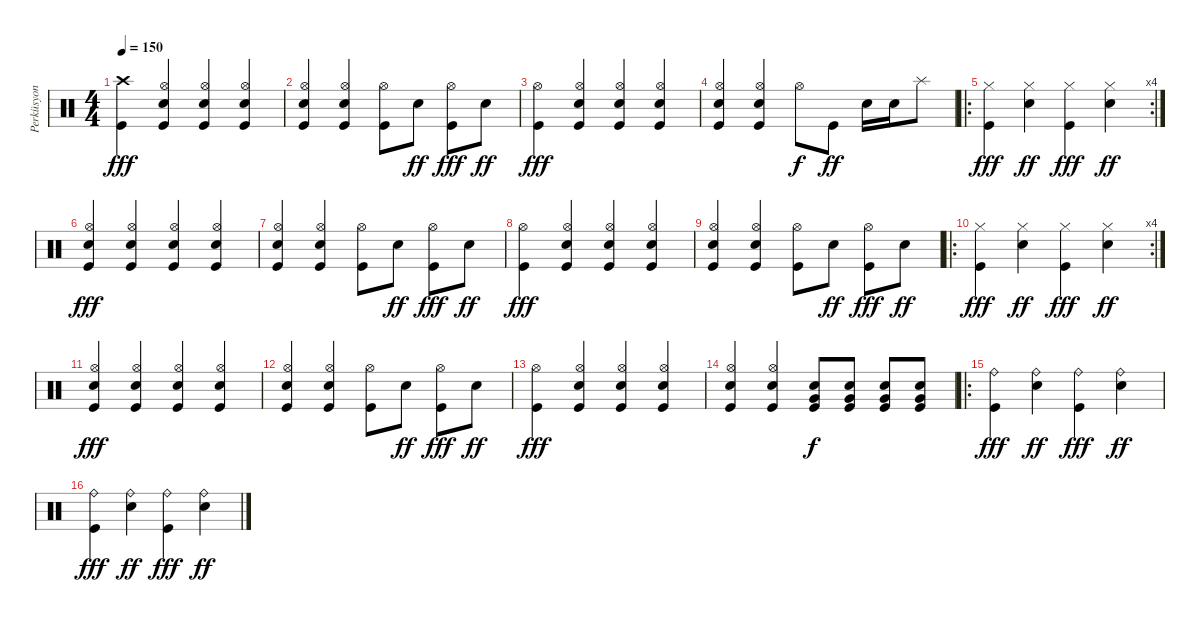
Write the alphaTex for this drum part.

\track ("Perküsyon" "Perküsyon") {instrument percussion}
\staff {score}
\articulation defaults
\ts (4 4)
\tempo 150
\clef neutral
\ks c
("Crash high (hit)" "Kick (hit)").4{dy fff} ("Hi-Hat (open)" "Snare (hit) 2" "Kick (hit)").4 ("Hi-Hat (open)" "Snare (hit) 2" "Kick (hit)").4 ("Hi-Hat (open)" "Snare (hit) 2" "Kick (hit)").4 |
("Hi-Hat (open)" "Snare (hit) 2" "Kick (hit)").4 ("Hi-Hat (open)" "Snare (hit) 2" "Kick (hit)").4 ("Hi-Hat (open)" "Kick (hit)").8 "Snare (hit) 2".8{dy ff} ("Hi-Hat (open)" "Kick (hit)").8{dy fff} "Snare (hit) 2".8{dy ff} |
("Hi-Hat (open)" "Kick (hit)").4{dy fff} ("Hi-Hat (open)" "Snare (hit) 2" "Kick (hit)").4 ("Hi-Hat (open)" "Snare (hit) 2" "Kick (hit)").4 ("Hi-Hat (open)" "Snare (hit) 2" "Kick (hit)").4 |
("Hi-Hat (open)" "Snare (hit) 2" "Kick (hit)").4 ("Hi-Hat (open)" "Snare (hit) 2" "Kick (hit)").4 "Hi-Hat (open)".8{dy f} "Kick (hit)".8{dy ff} "Snare (hit) 2".16 "Snare (hit) 2".16 "Splash (hit)".8 |
\ro
\rc 4
("Hi-Hat (closed)" "Kick (hit)").4{dy fff} ("Hi-Hat (closed)" "Snare (hit) 2").4{dy ff} ("Hi-Hat (closed)" "Kick (hit)").4{dy fff} ("Hi-Hat (closed)" "Snare (hit) 2").4{dy ff} |
("Hi-Hat (open)" "Snare (hit) 2" "Kick (hit)").4{dy fff} ("Hi-Hat (open)" "Snare (hit) 2" "Kick (hit)").4 ("Hi-Hat (open)" "Snare (hit) 2" "Kick (hit)").4 ("Hi-Hat (open)" "Snare (hit) 2" "Kick (hit)").4 |
("Hi-Hat (open)" "Snare (hit) 2" "Kick (hit)").4 ("Hi-Hat (open)" "Snare (hit) 2" "Kick (hit)").4 ("Hi-Hat (open)" "Kick (hit)").8 "Snare (hit) 2".8{dy ff} ("Hi-Hat (open)" "Kick (hit)").8{dy fff} "Snare (hit) 2".8{dy ff} |
("Hi-Hat (open)" "Kick (hit)").4{dy fff} ("Hi-Hat (open)" "Snare (hit) 2" "Kick (hit)").4 ("Hi-Hat (open)" "Snare (hit) 2" "Kick (hit)").4 ("Hi-Hat (open)" "Snare (hit) 2" "Kick (hit)").4 |
("Hi-Hat (open)" "Snare (hit) 2" "Kick (hit)").4 ("Hi-Hat (open)" "Snare (hit) 2" "Kick (hit)").4 ("Hi-Hat (open)" "Kick (hit)").8 "Snare (hit) 2".8{dy ff} ("Hi-Hat (open)" "Kick (hit)").8{dy fff} "Snare (hit) 2".8{dy ff} |
\ro
\rc 4
("Hi-Hat (closed)" "Kick (hit)").4{dy fff} ("Hi-Hat (closed)" "Snare (hit) 2").4{dy ff} ("Hi-Hat (closed)" "Kick (hit)").4{dy fff} ("Hi-Hat (closed)" "Snare (hit) 2").4{dy ff} |
("Hi-Hat (open)" "Snare (hit) 2" "Kick (hit)").4{dy fff} ("Hi-Hat (open)" "Snare (hit) 2" "Kick (hit)").4 ("Hi-Hat (open)" "Snare (hit) 2" "Kick (hit)").4 ("Hi-Hat (open)" "Snare (hit) 2" "Kick (hit)").4 |
("Hi-Hat (open)" "Snare (hit) 2" "Kick (hit)").4 ("Hi-Hat (open)" "Snare (hit) 2" "Kick (hit)").4 ("Hi-Hat (open)" "Kick (hit)").8 "Snare (hit) 2".8{dy ff} ("Hi-Hat (open)" "Kick (hit)").8{dy fff} "Snare (hit) 2".8{dy ff} |
("Hi-Hat (open)" "Kick (hit)").4{dy fff} ("Hi-Hat (open)" "Snare (hit) 2" "Kick (hit)").4 ("Hi-Hat (open)" "Snare (hit) 2" "Kick (hit)").4 ("Hi-Hat (open)" "Snare (hit) 2" "Kick (hit)").4 |
("Hi-Hat (open)" "Snare (hit) 2" "Kick (hit)").4 ("Hi-Hat (open)" "Snare (hit) 2" "Kick (hit)").4 ("Snare (hit) 2" "Very Low Tom (hit)" "Kick (hit)").8{dy f} ("Snare (hit) 2" "Very Low Tom (hit)" "Kick (hit)").8 ("Snare (hit) 2" "Very Low Tom (hit)" "Kick (hit)").8 ("Snare (hit) 2" "Very Low Tom (hit)" "Kick (hit)").8 |
\ro
("Ride (bell)" "Kick (hit)").4{dy fff} ("Ride (bell)" "Snare (hit) 2").4{dy ff} ("Ride (bell)" "Kick (hit)").4{dy fff} ("Ride (bell)" "Snare (hit) 2").4{dy ff} |
("Ride (bell)" "Kick (hit)").4{dy fff} ("Ride (bell)" "Snare (hit) 2").4{dy ff} ("Ride (bell)" "Kick (hit)").4{dy fff} ("Ride (bell)" "Snare (hit) 2").4{dy ff}
